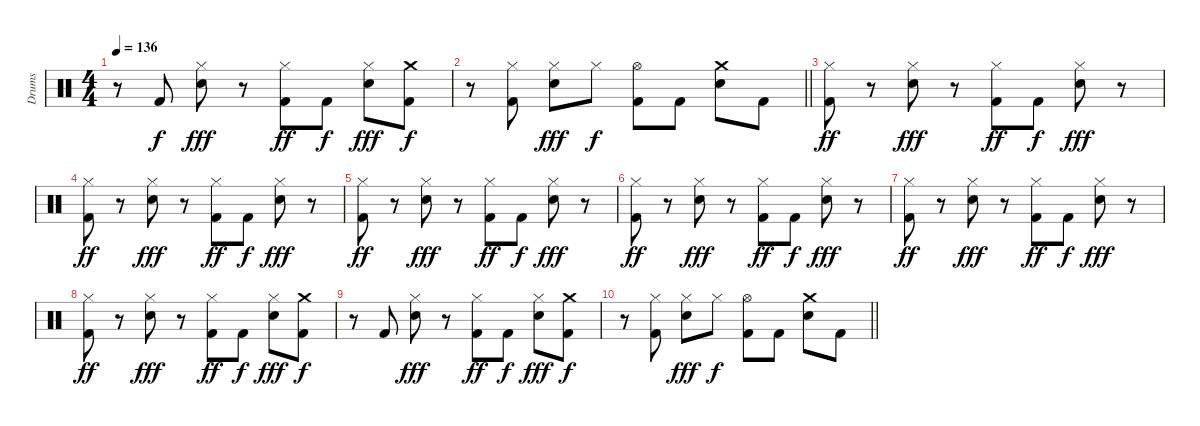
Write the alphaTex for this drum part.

\track ("Drums" "Drums") {instrument percussion}
\staff {score}
\articulation defaults
\ts (4 4)
\tempo 136
\clef neutral
\ks c
r.8{dy f} "Kick (hit) 2".8 ("Hi-Hat (closed)" "Snare (hit) 2").8{dy fff} r.8 ("Hi-Hat (closed)" "Kick (hit) 2").8{dy ff} "Kick (hit) 2".8{dy f} ("Hi-Hat (closed)" "Snare (hit) 2").8{dy fff} ("Crash medium (hit)" "Kick (hit) 2").8{dy f} |
\barLineRight lightlight
r.8 ("Hi-Hat (closed)" "Kick (hit) 2").8 ("Hi-Hat (closed)" "Snare (hit) 2").8{dy fff} "Hi-Hat (closed)".8{dy f} ("Hi-Hat (open)" "Kick (hit) 2").8 "Kick (hit) 2".8 ("Crash medium (hit)" "Snare (hit) 2").8 "Kick (hit) 2".8 |
("Hi-Hat (closed)" "Kick (hit) 2").8{dy ff} r.8 ("Hi-Hat (closed)" "Snare (hit) 2").8{dy fff} r.8 ("Hi-Hat (closed)" "Kick (hit) 2").8{dy ff} "Kick (hit) 2".8{dy f} ("Hi-Hat (closed)" "Snare (hit) 2").8{dy fff} r.8 |
("Hi-Hat (closed)" "Kick (hit) 2").8{dy ff} r.8 ("Hi-Hat (closed)" "Snare (hit) 2").8{dy fff} r.8 ("Hi-Hat (closed)" "Kick (hit) 2").8{dy ff} "Kick (hit) 2".8{dy f} ("Hi-Hat (closed)" "Snare (hit) 2").8{dy fff} r.8 |
("Hi-Hat (closed)" "Kick (hit) 2").8{dy ff} r.8 ("Hi-Hat (closed)" "Snare (hit) 2").8{dy fff} r.8 ("Hi-Hat (closed)" "Kick (hit) 2").8{dy ff} "Kick (hit) 2".8{dy f} ("Hi-Hat (closed)" "Snare (hit) 2").8{dy fff} r.8 |
("Hi-Hat (closed)" "Kick (hit) 2").8{dy ff} r.8 ("Hi-Hat (closed)" "Snare (hit) 2").8{dy fff} r.8 ("Hi-Hat (closed)" "Kick (hit) 2").8{dy ff} "Kick (hit) 2".8{dy f} ("Hi-Hat (closed)" "Snare (hit) 2").8{dy fff} r.8 |
("Hi-Hat (closed)" "Kick (hit) 2").8{dy ff} r.8 ("Hi-Hat (closed)" "Snare (hit) 2").8{dy fff} r.8 ("Hi-Hat (closed)" "Kick (hit) 2").8{dy ff} "Kick (hit) 2".8{dy f} ("Hi-Hat (closed)" "Snare (hit) 2").8{dy fff} r.8 |
("Hi-Hat (closed)" "Kick (hit) 2").8{dy ff} r.8 ("Hi-Hat (closed)" "Snare (hit) 2").8{dy fff} r.8 ("Hi-Hat (closed)" "Kick (hit) 2").8{dy ff} "Kick (hit) 2".8{dy f} ("Hi-Hat (closed)" "Snare (hit) 2").8{dy fff} ("Crash medium (hit)" "Kick (hit) 2").8{dy f} |
r.8 "Kick (hit) 2".8 ("Hi-Hat (closed)" "Snare (hit) 2").8{dy fff} r.8 ("Hi-Hat (closed)" "Kick (hit) 2").8{dy ff} "Kick (hit) 2".8{dy f} ("Hi-Hat (closed)" "Snare (hit) 2").8{dy fff} ("Crash medium (hit)" "Kick (hit) 2").8{dy f} |
\barLineRight lightlight
r.8 ("Hi-Hat (closed)" "Kick (hit) 2").8 ("Hi-Hat (closed)" "Snare (hit) 2").8{dy fff} "Hi-Hat (closed)".8{dy f} ("Hi-Hat (open)" "Kick (hit) 2").8 "Kick (hit) 2".8 ("Crash medium (hit)" "Snare (hit) 2").8 "Kick (hit) 2".8
